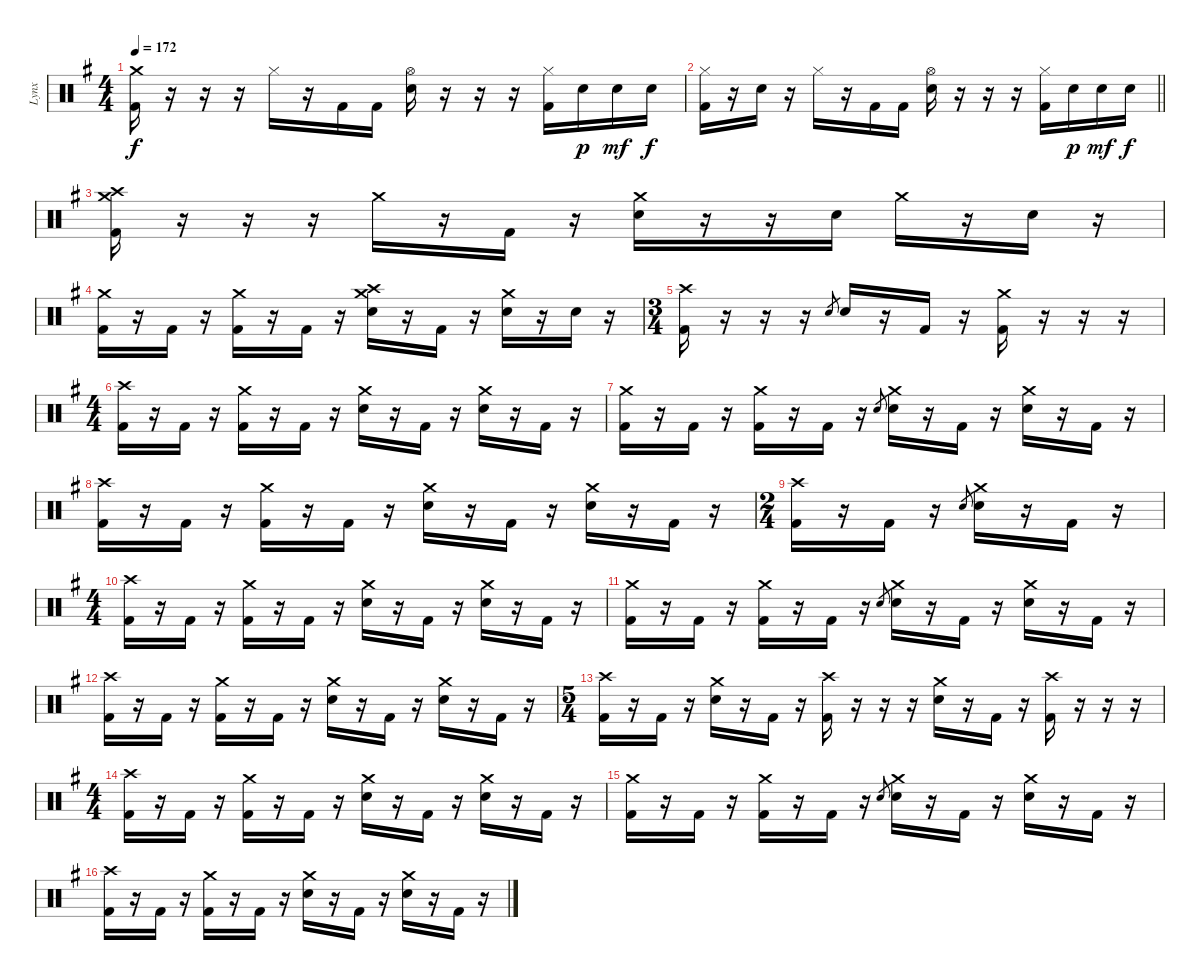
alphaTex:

\track ("Lynx" "Lynx") {instrument percussion}
\staff {score}
\articulation defaults
\ts (4 4)
\tempo 172
\clef neutral
\ks g
("Crash medium (hit)" "Kick (hit) 2").16{dy f} r.16 r.16 r.16 "Hi-Hat (closed)".16 r.16 "Kick (hit) 2".16 "Kick (hit) 2".16 ("Hi-Hat (open)" "Electric Snare (hit)").16 r.16 r.16 r.16 ("Hi-Hat (closed)" "Kick (hit) 2").16 "Electric Snare (hit)".16{dy p} "Electric Snare (hit)".16{dy mf} "Electric Snare (hit)".16{dy f} |
\barLineRight lightlight
("Hi-Hat (closed)" "Kick (hit) 2").16 r.16 "Electric Snare (hit)".16 r.16 "Hi-Hat (closed)".16 r.16 "Kick (hit) 2".16 "Kick (hit) 2".16 ("Hi-Hat (open)" "Electric Snare (hit)").16 r.16 r.16 r.16 ("Hi-Hat (closed)" "Kick (hit) 2").16 "Electric Snare (hit)".16{dy p} "Electric Snare (hit)".16{dy mf} "Electric Snare (hit)".16{dy f} |
\section ("" "")
("Crash high (hit)" "Crash medium (hit)" "Kick (hit) 2").16 r.16 r.16 r.16 "Crash medium (hit)".16 r.16 "Kick (hit) 2".16 r.16 ("Crash medium (hit)" "Electric Snare (hit)").16 r.16 r.16 "Electric Snare (hit)".16 "Crash medium (hit)".16 r.16 "Electric Snare (hit)".16 r.16 |
("Crash medium (hit)" "Kick (hit) 2").16 r.16 "Kick (hit) 2".16 r.16 ("Crash medium (hit)" "Kick (hit) 2").16 r.16 "Kick (hit) 2".16 r.16 ("Crash medium (hit)" "Crash high (hit)" "Electric Snare (hit)").16 r.16 "Kick (hit) 2".16 r.16 ("Crash medium (hit)" "Electric Snare (hit)").16 r.16 "Electric Snare (hit)".16 r.16 |
\ts (3 4)
("Crash high (hit)" "Kick (hit) 2").16 r.16 r.16 r.16 "Electric Snare (hit)".8{gr} "Electric Snare (hit)".16 r.16 "Kick (hit) 2".16 r.16 ("Crash medium (hit)" "Kick (hit) 2").16 r.16 r.16 r.16 |
\ts (4 4)
("Crash high (hit)" "Kick (hit) 2").16 r.16 "Kick (hit) 2".16 r.16 ("Crash medium (hit)" "Kick (hit) 2").16 r.16 "Kick (hit) 2".16 r.16 ("Crash medium (hit)" "Electric Snare (hit)").16 r.16 "Kick (hit) 2".16 r.16 ("Crash medium (hit)" "Electric Snare (hit)").16 r.16 "Kick (hit) 2".16 r.16 |
("Crash medium (hit)" "Kick (hit) 2").16 r.16 "Kick (hit) 2".16 r.16 ("Crash medium (hit)" "Kick (hit) 2").16 r.16 "Kick (hit) 2".16 r.16 "Electric Snare (hit)".8{gr} ("Crash medium (hit)" "Electric Snare (hit)").16 r.16 "Kick (hit) 2".16 r.16 ("Crash medium (hit)" "Electric Snare (hit)").16 r.16 "Kick (hit) 2".16 r.16 |
("Crash high (hit)" "Kick (hit) 2").16 r.16 "Kick (hit) 2".16 r.16 ("Crash medium (hit)" "Kick (hit) 2").16 r.16 "Kick (hit) 2".16 r.16 ("Crash medium (hit)" "Electric Snare (hit)").16 r.16 "Kick (hit) 2".16 r.16 ("Crash medium (hit)" "Electric Snare (hit)").16 r.16 "Kick (hit) 2".16 r.16 |
\ts (2 4)
("Crash high (hit)" "Kick (hit) 2").16 r.16 "Kick (hit) 2".16 r.16 "Electric Snare (hit)".8{gr} ("Crash medium (hit)" "Electric Snare (hit)").16 r.16 "Kick (hit) 2".16 r.16 |
\ts (4 4)
("Crash high (hit)" "Kick (hit) 2").16 r.16 "Kick (hit) 2".16 r.16 ("Crash medium (hit)" "Kick (hit) 2").16 r.16 "Kick (hit) 2".16 r.16 ("Crash medium (hit)" "Electric Snare (hit)").16 r.16 "Kick (hit) 2".16 r.16 ("Crash medium (hit)" "Electric Snare (hit)").16 r.16 "Kick (hit) 2".16 r.16 |
("Crash medium (hit)" "Kick (hit) 2").16 r.16 "Kick (hit) 2".16 r.16 ("Crash medium (hit)" "Kick (hit) 2").16 r.16 "Kick (hit) 2".16 r.16 "Electric Snare (hit)".8{gr} ("Crash medium (hit)" "Electric Snare (hit)").16 r.16 "Kick (hit) 2".16 r.16 ("Crash medium (hit)" "Electric Snare (hit)").16 r.16 "Kick (hit) 2".16 r.16 |
("Crash high (hit)" "Kick (hit) 2").16 r.16 "Kick (hit) 2".16 r.16 ("Crash medium (hit)" "Kick (hit) 2").16 r.16 "Kick (hit) 2".16 r.16 ("Crash medium (hit)" "Electric Snare (hit)").16 r.16 "Kick (hit) 2".16 r.16 ("Crash medium (hit)" "Electric Snare (hit)").16 r.16 "Kick (hit) 2".16 r.16 |
\ts (5 4)
("Crash high (hit)" "Kick (hit) 2").16 r.16 "Kick (hit) 2".16 r.16 ("Crash medium (hit)" "Electric Snare (hit)").16 r.16 "Kick (hit) 2".16 r.16 ("Crash high (hit)" "Kick (hit) 2").16 r.16 r.16 r.16 ("Crash medium (hit)" "Electric Snare (hit)").16 r.16 "Kick (hit) 2".16 r.16 ("Crash high (hit)" "Kick (hit) 2").16 r.16 r.16 r.16 |
\ts (4 4)
("Crash high (hit)" "Kick (hit) 2").16 r.16 "Kick (hit) 2".16 r.16 ("Crash medium (hit)" "Kick (hit) 2").16 r.16 "Kick (hit) 2".16 r.16 ("Crash medium (hit)" "Electric Snare (hit)").16 r.16 "Kick (hit) 2".16 r.16 ("Crash medium (hit)" "Electric Snare (hit)").16 r.16 "Kick (hit) 2".16 r.16 |
("Crash medium (hit)" "Kick (hit) 2").16 r.16 "Kick (hit) 2".16 r.16 ("Crash medium (hit)" "Kick (hit) 2").16 r.16 "Kick (hit) 2".16 r.16 "Electric Snare (hit)".8{gr} ("Crash medium (hit)" "Electric Snare (hit)").16 r.16 "Kick (hit) 2".16 r.16 ("Crash medium (hit)" "Electric Snare (hit)").16 r.16 "Kick (hit) 2".16 r.16 |
("Crash high (hit)" "Kick (hit) 2").16 r.16 "Kick (hit) 2".16 r.16 ("Crash medium (hit)" "Kick (hit) 2").16 r.16 "Kick (hit) 2".16 r.16 ("Crash medium (hit)" "Electric Snare (hit)").16 r.16 "Kick (hit) 2".16 r.16 ("Crash medium (hit)" "Electric Snare (hit)").16 r.16 "Kick (hit) 2".16 r.16
